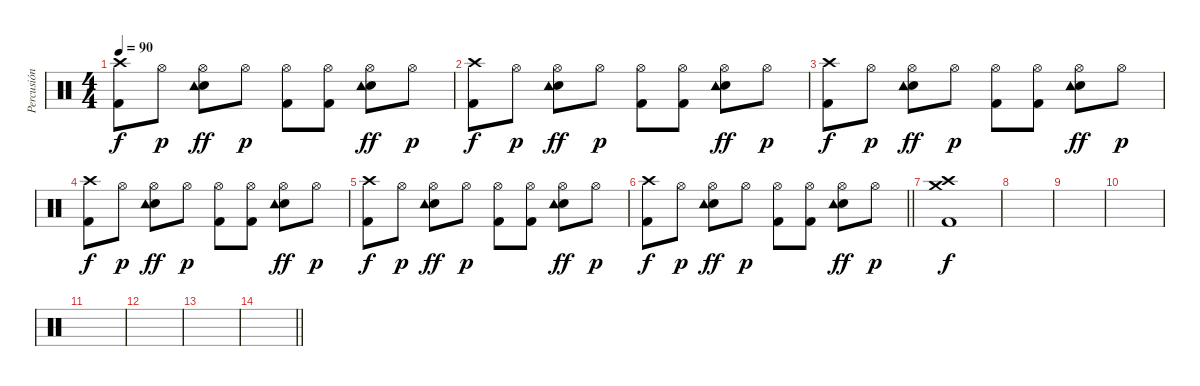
\track ("Percusión" "Percusión") {instrument percussion}
\staff {score}
\articulation defaults
\ts (4 4)
\tempo 90
\clef neutral
\ks c
("Crash high (hit)" "Kick (hit) 2").8{dy f} "Hi-Hat (open)".8{dy p} ("Hi-Hat (open)" "Snare (hit) 2" "Tambourine (hit)").8{dy ff} "Hi-Hat (open)".8{dy p} ("Hi-Hat (open)" "Kick (hit) 2").8 ("Hi-Hat (open)" "Kick (hit) 2").8 ("Hi-Hat (open)" "Snare (hit) 2" "Tambourine (hit)").8{dy ff} "Hi-Hat (open)".8{dy p} |
("Crash high (hit)" "Kick (hit) 2").8{dy f} "Hi-Hat (open)".8{dy p} ("Hi-Hat (open)" "Snare (hit) 2" "Tambourine (hit)").8{dy ff} "Hi-Hat (open)".8{dy p} ("Hi-Hat (open)" "Kick (hit) 2").8 ("Hi-Hat (open)" "Kick (hit) 2").8 ("Hi-Hat (open)" "Snare (hit) 2" "Tambourine (hit)").8{dy ff} "Hi-Hat (open)".8{dy p} |
("Crash high (hit)" "Kick (hit) 2").8{dy f} "Hi-Hat (open)".8{dy p} ("Hi-Hat (open)" "Snare (hit) 2" "Tambourine (hit)").8{dy ff} "Hi-Hat (open)".8{dy p} ("Hi-Hat (open)" "Kick (hit) 2").8 ("Hi-Hat (open)" "Kick (hit) 2").8 ("Hi-Hat (open)" "Snare (hit) 2" "Tambourine (hit)").8{dy ff} "Hi-Hat (open)".8{dy p} |
("Crash high (hit)" "Kick (hit) 2").8{dy f} "Hi-Hat (open)".8{dy p} ("Hi-Hat (open)" "Snare (hit) 2" "Tambourine (hit)").8{dy ff} "Hi-Hat (open)".8{dy p} ("Hi-Hat (open)" "Kick (hit) 2").8 ("Hi-Hat (open)" "Kick (hit) 2").8 ("Hi-Hat (open)" "Snare (hit) 2" "Tambourine (hit)").8{dy ff} "Hi-Hat (open)".8{dy p} |
("Crash high (hit)" "Kick (hit) 2").8{dy f} "Hi-Hat (open)".8{dy p} ("Hi-Hat (open)" "Snare (hit) 2" "Tambourine (hit)").8{dy ff} "Hi-Hat (open)".8{dy p} ("Hi-Hat (open)" "Kick (hit) 2").8 ("Hi-Hat (open)" "Kick (hit) 2").8 ("Hi-Hat (open)" "Snare (hit) 2" "Tambourine (hit)").8{dy ff} "Hi-Hat (open)".8{dy p} |
\barLineRight lightlight
("Crash high (hit)" "Kick (hit) 2").8{dy f} "Hi-Hat (open)".8{dy p} ("Hi-Hat (open)" "Snare (hit) 2" "Tambourine (hit)").8{dy ff} "Hi-Hat (open)".8{dy p} ("Hi-Hat (open)" "Kick (hit) 2").8 ("Hi-Hat (open)" "Kick (hit) 2").8 ("Hi-Hat (open)" "Snare (hit) 2" "Tambourine (hit)").8{dy ff} "Hi-Hat (open)".8{dy p} |
("Crash high (hit)" "Kick (hit) 2" "Crash medium (hit)").1{dy f} |
|
|
|
|
|
|
\barLineRight lightlight
